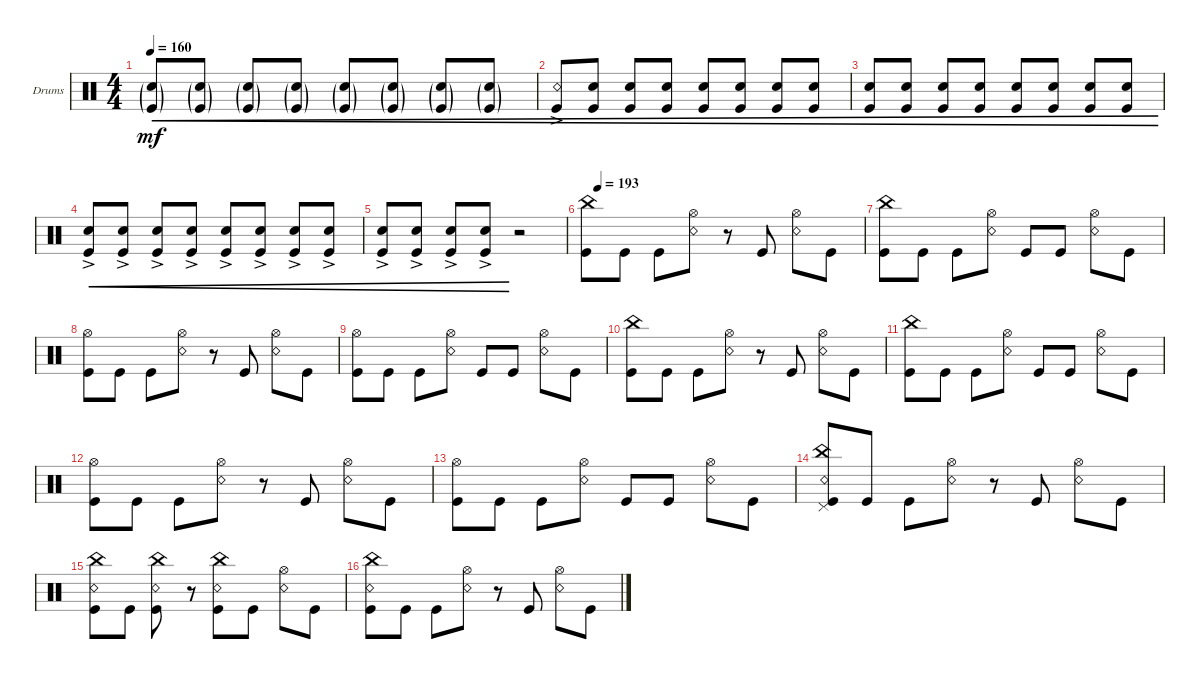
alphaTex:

\defaultSystemsLayout 4
\bracketExtendMode groupsimilarinstruments
\firstSystemTrackNameOrientation horizontal
\otherSystemsTrackNameOrientation horizontal
\track ("Drumkit" "Drums") {multiBarRest instrument percussion}
\staff {score}
\articulation defaults
\ts (4 4)
\tempo 160
\clef neutral
\ks c
("Snare (hit) 2"{g} "Kick (hit)"{g}).8{cre dy mf} ("Snare (hit) 2"{g} "Kick (hit)"{g}).8{cre} ("Snare (hit) 2"{g} "Kick (hit)"{g}).8{cre} ("Snare (hit) 2"{g} "Kick (hit)"{g}).8{cre} ("Snare (hit) 2"{g} "Kick (hit)"{g}).8{cre} ("Snare (hit) 2"{g} "Kick (hit)"{g}).8{cre} ("Snare (hit) 2"{g} "Kick (hit)"{g}).8{cre} ("Snare (hit) 2"{g} "Kick (hit)"{g}).8{cre} |
("Snare (rim shot)"{ac} "Kick (hit)").8{cre} ("Kick (hit)" "Snare (hit) 2").8{cre} ("Kick (hit)" "Snare (hit) 2").8{cre} ("Kick (hit)" "Snare (hit) 2").8{cre} ("Kick (hit)" "Snare (hit) 2").8{cre} ("Kick (hit)" "Snare (hit) 2").8{cre} ("Kick (hit)" "Snare (hit) 2").8{cre} ("Kick (hit)" "Snare (hit) 2").8{cre} |
("Kick (hit)" "Snare (hit) 2").8{cre} ("Kick (hit)" "Snare (hit) 2").8{cre} ("Kick (hit)" "Snare (hit) 2").8{cre} ("Kick (hit)" "Snare (hit) 2").8{cre} ("Kick (hit)" "Snare (hit) 2").8{cre} ("Kick (hit)" "Snare (hit) 2").8{cre} ("Kick (hit)" "Snare (hit) 2").8{cre} ("Kick (hit)" "Snare (hit) 2").8{cre} |
("Kick (hit)"{ac} "Snare (hit) 2"{ac}).8{cre} ("Kick (hit)"{ac} "Snare (hit) 2"{ac}).8{cre} ("Kick (hit)"{ac} "Snare (hit) 2"{ac}).8{cre} ("Kick (hit)"{ac} "Snare (hit) 2"{ac}).8{cre} ("Snare (hit) 2"{ac} "Kick (hit)"{ac}).8{cre} ("Snare (hit) 2"{ac} "Kick (hit)"{ac}).8{cre} ("Snare (hit) 2"{ac} "Kick (hit)"{ac}).8{cre} ("Snare (hit) 2"{ac} "Kick (hit)"{ac}).8{cre} |
("Snare (hit) 2"{ac} "Kick (hit)"{ac}).8{cre} ("Snare (hit) 2"{ac} "Kick (hit)"{ac}).8{cre} ("Snare (hit) 2"{ac} "Kick (hit)"{ac}).8{cre} ("Snare (hit) 2"{ac} "Kick (hit)"{ac}).8{cre} r.2 |
\tempo (193 0.03125)
("Kick (hit)" "China (hit)").8 "Kick (hit)".8 "Kick (hit)".8 ("Snare (rim shot)" "Hi-Hat (open)").8 r.8 "Kick (hit)".8 ("Snare (rim shot)" "Hi-Hat (open)").8 "Kick (hit)".8 |
\scale
0.333333 ("Kick (hit)" "China (hit)").8 "Kick (hit)".8 "Kick (hit)".8 ("Snare (rim shot)" "Hi-Hat (open)").8 "Kick (hit)".8 "Kick (hit)".8 ("Snare (rim shot)" "Hi-Hat (open)").8 "Kick (hit)".8 |
\scale
0.333333 ("Hi-Hat (open)" "Kick (hit)").8 "Kick (hit)".8 "Kick (hit)".8 ("Snare (rim shot)" "Hi-Hat (open)").8 r.8 "Kick (hit)".8 ("Snare (rim shot)" "Hi-Hat (open)").8 "Kick (hit)".8 |
\scale
0.333333 ("Kick (hit)" "Hi-Hat (open)").8 "Kick (hit)".8 "Kick (hit)".8 ("Snare (rim shot)" "Hi-Hat (open)").8 "Kick (hit)".8 "Kick (hit)".8 ("Snare (rim shot)" "Hi-Hat (open)").8 "Kick (hit)".8 |
("Kick (hit)" "China (hit)").8 "Kick (hit)".8 "Kick (hit)".8 ("Snare (rim shot)" "Hi-Hat (open)").8 r.8 "Kick (hit)".8 ("Snare (rim shot)" "Hi-Hat (open)").8 "Kick (hit)".8 |
("Kick (hit)" "China (hit)").8 "Kick (hit)".8 "Kick (hit)".8 ("Snare (rim shot)" "Hi-Hat (open)").8 "Kick (hit)".8 "Kick (hit)".8 ("Snare (rim shot)" "Hi-Hat (open)").8 "Kick (hit)".8 |
("Hi-Hat (open)" "Kick (hit)").8 "Kick (hit)".8 "Kick (hit)".8 ("Snare (rim shot)" "Hi-Hat (open)").8 r.8 "Kick (hit)".8 ("Snare (rim shot)" "Hi-Hat (open)").8 "Kick (hit)".8 |
("Kick (hit)" "Hi-Hat (open)").8 "Kick (hit)".8 "Kick (hit)".8 ("Snare (rim shot)" "Hi-Hat (open)").8 "Kick (hit)".8 "Kick (hit)".8 ("Snare (rim shot)" "Hi-Hat (open)").8 "Kick (hit)".8 |
\scale
0.333333 ("Kick (hit)" "Snare (rim shot)" "Pedal Hi-Hat (hit)" "China (hit)").8 "Kick (hit)".8 "Kick (hit)".8 ("Snare (rim shot)" "Hi-Hat (open)").8 r.8 "Kick (hit)".8 ("Snare (rim shot)" "Hi-Hat (open)").8 "Kick (hit)".8 |
\scale
0.333333 ("Kick (hit)" "Snare (rim shot)" "China (hit)").8 "Kick (hit)".8 ("Kick (hit)" "China (hit)" "Snare (rim shot)").8 r.8 ("Kick (hit)" "China (hit)" "Snare (rim shot)").8 "Kick (hit)".8 ("Snare (rim shot)" "Hi-Hat (open)").8 "Kick (hit)".8 |
\scale
0.333333 ("Kick (hit)" "China (hit)" "Snare (rim shot)").8 "Kick (hit)".8 "Kick (hit)".8 ("Snare (rim shot)" "Hi-Hat (open)").8 r.8 "Kick (hit)".8 ("Snare (rim shot)" "Hi-Hat (open)").8 "Kick (hit)".8
